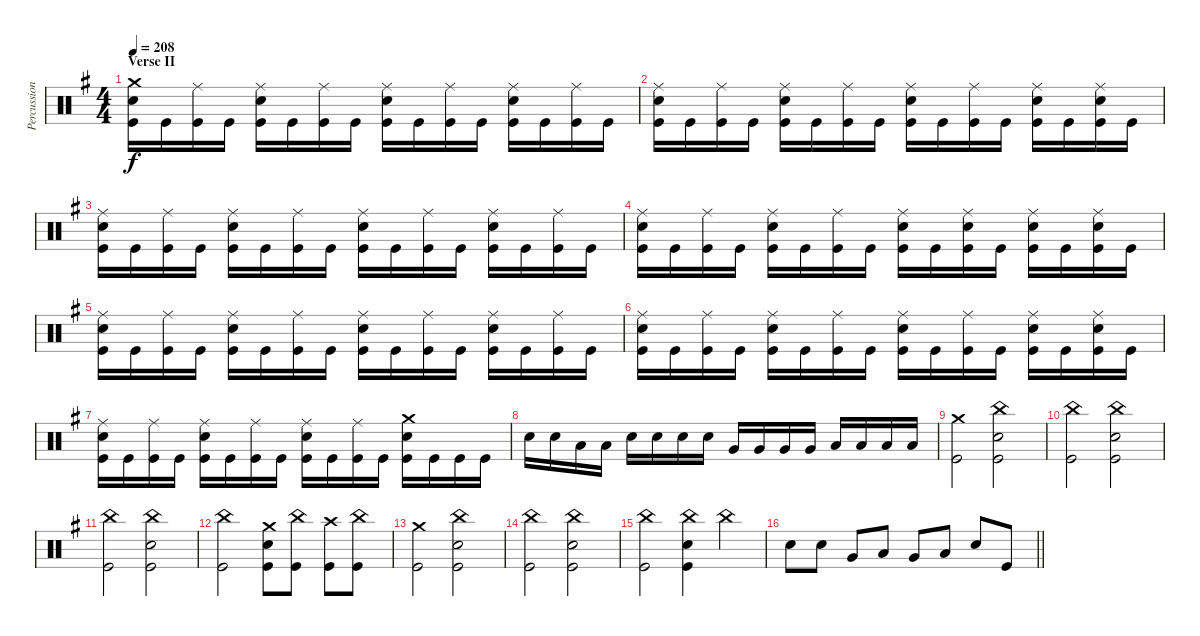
\track ("Percussion" "Percussion") {instrument percussion}
\staff {score}
\articulation defaults
\ts (4 4)
\section ("" "Verse II")
\tempo 208
\clef neutral
\ks g
("Crash medium (hit)" "Electric Snare (hit)" "Kick (hit)").16{dy f} "Kick (hit)".16 ("Ride (middle)" "Kick (hit)").16 "Kick (hit)".16 ("Ride (middle)" "Electric Snare (hit)" "Kick (hit)").16 "Kick (hit)".16 ("Ride (middle)" "Kick (hit)").16 "Kick (hit)".16 ("Ride (middle)" "Electric Snare (hit)" "Kick (hit)").16 "Kick (hit)".16 ("Ride (middle)" "Kick (hit)").16 "Kick (hit)".16 ("Ride (middle)" "Electric Snare (hit)" "Kick (hit)").16 "Kick (hit)".16 ("Ride (middle)" "Kick (hit)").16 "Kick (hit)".16 |
("Ride (middle)" "Electric Snare (hit)" "Kick (hit)").16 "Kick (hit)".16 ("Ride (middle)" "Kick (hit)").16 "Kick (hit)".16 ("Ride (middle)" "Electric Snare (hit)" "Kick (hit)").16 "Kick (hit)".16 ("Ride (middle)" "Kick (hit)").16 "Kick (hit)".16 ("Ride (middle)" "Electric Snare (hit)" "Kick (hit)").16 "Kick (hit)".16 ("Ride (middle)" "Kick (hit)").16 "Kick (hit)".16 ("Ride (middle)" "Electric Snare (hit)" "Kick (hit)").16 "Kick (hit)".16 ("Ride (middle)" "Electric Snare (hit)" "Kick (hit)").16 "Kick (hit)".16 |
("Ride (middle)" "Electric Snare (hit)" "Kick (hit)").16 "Kick (hit)".16 ("Ride (middle)" "Kick (hit)").16 "Kick (hit)".16 ("Ride (middle)" "Electric Snare (hit)" "Kick (hit)").16 "Kick (hit)".16 ("Ride (middle)" "Kick (hit)").16 "Kick (hit)".16 ("Ride (middle)" "Electric Snare (hit)" "Kick (hit)").16 "Kick (hit)".16 ("Ride (middle)" "Kick (hit)").16 "Kick (hit)".16 ("Ride (middle)" "Electric Snare (hit)" "Kick (hit)").16 "Kick (hit)".16 ("Ride (middle)" "Kick (hit)").16 "Kick (hit)".16 |
("Ride (middle)" "Electric Snare (hit)" "Kick (hit)").16 "Kick (hit)".16 ("Ride (middle)" "Kick (hit)").16 "Kick (hit)".16 ("Ride (middle)" "Electric Snare (hit)" "Kick (hit)").16 "Kick (hit)".16 ("Ride (middle)" "Kick (hit)").16 "Kick (hit)".16 ("Ride (middle)" "Electric Snare (hit)" "Kick (hit)").16 "Kick (hit)".16 ("Ride (middle)" "Electric Snare (hit)" "Kick (hit)").16 "Kick (hit)".16 ("Ride (middle)" "Electric Snare (hit)" "Kick (hit)").16 "Kick (hit)".16 ("Ride (middle)" "Electric Snare (hit)" "Kick (hit)").16 "Kick (hit)".16 |
("Ride (middle)" "Electric Snare (hit)" "Kick (hit)").16 "Kick (hit)".16 ("Ride (middle)" "Kick (hit)").16 "Kick (hit)".16 ("Ride (middle)" "Electric Snare (hit)" "Kick (hit)").16 "Kick (hit)".16 ("Ride (middle)" "Kick (hit)").16 "Kick (hit)".16 ("Ride (middle)" "Electric Snare (hit)" "Kick (hit)").16 "Kick (hit)".16 ("Ride (middle)" "Kick (hit)").16 "Kick (hit)".16 ("Ride (middle)" "Electric Snare (hit)" "Kick (hit)").16 "Kick (hit)".16 ("Ride (middle)" "Kick (hit)").16 "Kick (hit)".16 |
("Ride (middle)" "Electric Snare (hit)" "Kick (hit)").16 "Kick (hit)".16 ("Ride (middle)" "Kick (hit)").16 "Kick (hit)".16 ("Ride (middle)" "Electric Snare (hit)" "Kick (hit)").16 "Kick (hit)".16 ("Ride (middle)" "Kick (hit)").16 "Kick (hit)".16 ("Ride (middle)" "Electric Snare (hit)" "Kick (hit)").16 "Kick (hit)".16 ("Ride (middle)" "Kick (hit)").16 "Kick (hit)".16 ("Ride (middle)" "Electric Snare (hit)" "Kick (hit)").16 "Kick (hit)".16 ("Ride (middle)" "Electric Snare (hit)" "Kick (hit)").16 "Kick (hit)".16 |
("Ride (middle)" "Electric Snare (hit)" "Kick (hit)").16 "Kick (hit)".16 ("Ride (middle)" "Kick (hit)").16 "Kick (hit)".16 ("Ride (middle)" "Electric Snare (hit)" "Kick (hit)").16 "Kick (hit)".16 ("Ride (middle)" "Kick (hit)").16 "Kick (hit)".16 ("Ride (middle)" "Electric Snare (hit)" "Kick (hit)").16 "Kick (hit)".16 ("Ride (middle)" "Kick (hit)").16 "Kick (hit)".16 ("Crash medium (hit)" "Electric Snare (hit)" "Kick (hit)").16 "Kick (hit)".16 "Kick (hit)".16 "Kick (hit)".16 |
"Electric Snare (hit)".16 "Electric Snare (hit)".16 "Low Tom (hit)".16 "Low Tom (hit)".16 "Electric Snare (hit)".16 "Electric Snare (hit)".16 "Electric Snare (hit)".16 "Electric Snare (hit)".16 "Very Low Tom (hit)".16 "Very Low Tom (hit)".16 "Very Low Tom (hit)".16 "Very Low Tom (hit)".16 "Low Floor Tom (hit)".16 "Low Floor Tom (hit)".16 "Low Floor Tom (hit)".16 "Low Floor Tom (hit)".16 |
("Crash medium (hit)" "Kick (hit)").2 ("China (hit)" "Electric Snare (hit)" "Kick (hit)").2 |
("China (hit)" "Kick (hit)").2 ("China (hit)" "Electric Snare (hit)" "Kick (hit)").2 |
("China (hit)" "Kick (hit)").2 ("China (hit)" "Electric Snare (hit)" "Kick (hit)").2 |
("China (hit)" "Kick (hit)").2 ("Crash medium (hit)" "Electric Snare (hit)" "Kick (hit)").8 ("China (hit)" "Kick (hit)").8 ("Crash high (hit)" "Kick (hit)").8 ("China (hit)" "Kick (hit)").8 |
("Crash medium (hit)" "Kick (hit)").2 ("China (hit)" "Electric Snare (hit)" "Kick (hit)").2 |
("China (hit)" "Kick (hit)").2 ("China (hit)" "Electric Snare (hit)" "Kick (hit)").2 |
("China (hit)" "Kick (hit)").2 ("China (hit)" "Electric Snare (hit)" "Kick (hit)").4 "China (hit)".4 |
\barLineRight lightlight "Electric Snare (hit)".8 "Electric Snare (hit)".8 "Very Low Tom (hit)".8 "Low Tom (hit)".8 "Very Low Tom (hit)".8 "Low Floor Tom (hit)".8 "Electric Snare (hit)".8 "Kick (hit)".8
